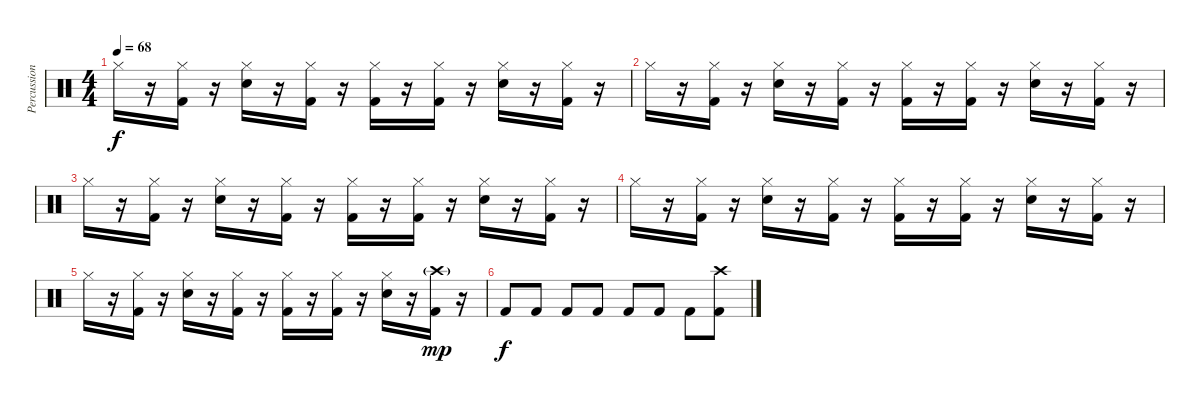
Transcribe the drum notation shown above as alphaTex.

\track ("Percussion" "Percussion") {instrument percussion}
\staff {score}
\articulation defaults
\ts (4 4)
\tempo 68
\clef neutral
\ks c "Hi-Hat (closed)".16{dy f}
r.16 ("Hi-Hat (closed)" "Kick (hit) 2").16 r.16 ("Hi-Hat (closed)" "Snare (hit) 2").16 r.16 ("Hi-Hat (closed)" "Kick (hit) 2").16 r.16 ("Hi-Hat (closed)" "Kick (hit) 2").16 r.16 ("Hi-Hat (closed)" "Kick (hit) 2").16 r.16 ("Hi-Hat (closed)" "Snare (hit) 2").16 r.16 ("Hi-Hat (closed)" "Kick (hit) 2").16 r.16 |
"Hi-Hat (closed)".16 r.16 ("Hi-Hat (closed)" "Kick (hit) 2").16 r.16 ("Hi-Hat (closed)" "Snare (hit) 2").16 r.16 ("Hi-Hat (closed)" "Kick (hit) 2").16 r.16 ("Hi-Hat (closed)" "Kick (hit) 2").16 r.16 ("Hi-Hat (closed)" "Kick (hit) 2").16 r.16 ("Hi-Hat (closed)" "Snare (hit) 2").16 r.16 ("Hi-Hat (closed)" "Kick (hit) 2").16 r.16 |
"Hi-Hat (closed)".16 r.16 ("Hi-Hat (closed)" "Kick (hit) 2").16 r.16 ("Hi-Hat (closed)" "Snare (hit) 2").16 r.16 ("Hi-Hat (closed)" "Kick (hit) 2").16 r.16 ("Hi-Hat (closed)" "Kick (hit) 2").16 r.16 ("Hi-Hat (closed)" "Kick (hit) 2").16 r.16 ("Hi-Hat (closed)" "Snare (hit) 2").16 r.16 ("Hi-Hat (closed)" "Kick (hit) 2").16 r.16 |
"Hi-Hat (closed)".16 r.16 ("Hi-Hat (closed)" "Kick (hit) 2").16 r.16 ("Hi-Hat (closed)" "Snare (hit) 2").16 r.16 ("Hi-Hat (closed)" "Kick (hit) 2").16 r.16 ("Hi-Hat (closed)" "Kick (hit) 2").16 r.16 ("Hi-Hat (closed)" "Kick (hit) 2").16 r.16 ("Hi-Hat (closed)" "Snare (hit) 2").16 r.16 ("Hi-Hat (closed)" "Kick (hit) 2").16 r.16 |
"Hi-Hat (closed)".16 r.16 ("Hi-Hat (closed)" "Kick (hit) 2").16 r.16 ("Hi-Hat (closed)" "Snare (hit) 2").16 r.16 ("Hi-Hat (closed)" "Kick (hit) 2").16 r.16 ("Hi-Hat (closed)" "Kick (hit) 2").16 r.16 ("Hi-Hat (closed)" "Kick (hit) 2").16 r.16 ("Hi-Hat (closed)" "Snare (hit) 2").16 r.16 ("Crash high (hit)"{g} "Kick (hit) 2").16{dy mp} r.16 |
"Kick (hit) 2".8{dy f} "Kick (hit) 2".8 "Kick (hit) 2".8 "Kick (hit) 2".8 "Kick (hit) 2".8 "Kick (hit) 2".8 "Kick (hit) 2".8 ("Crash high (hit)" "Kick (hit) 2").8
